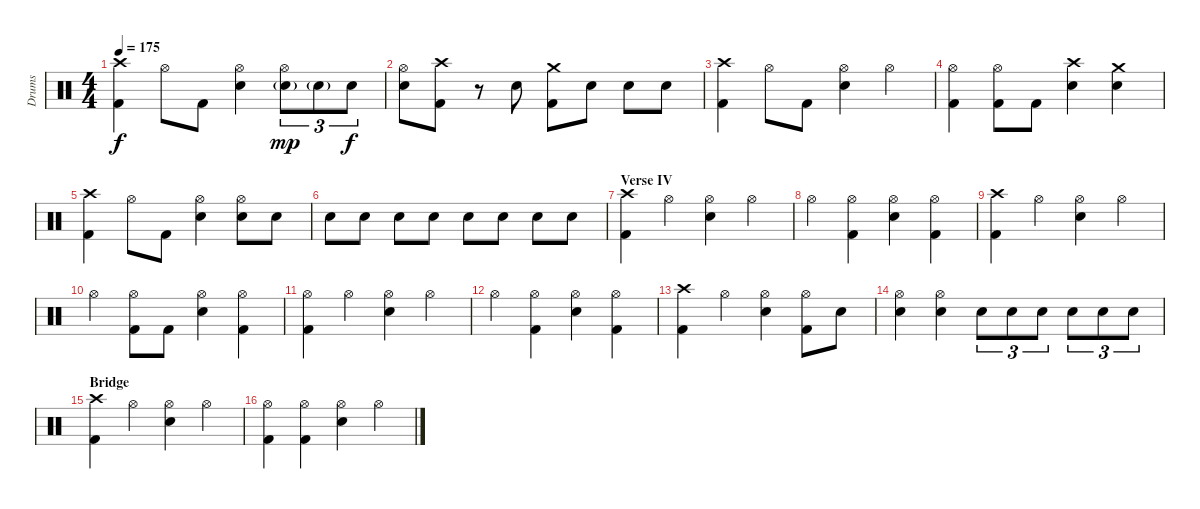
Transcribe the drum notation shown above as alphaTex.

\track ("Drums" "Drums") {instrument percussion}
\staff {score}
\articulation defaults
\ts (4 4)
\tempo 175
\clef neutral
\ks c
("Crash high (hit)" "Kick (hit) 2").4{dy f} "Hi-Hat (open)".8 "Kick (hit) 2".8 ("Hi-Hat (open)" "Snare (hit) 2").4 ("Hi-Hat (open)" "Snare (hit) 2"{g}).8{tu (3 2) dy mp} "Snare (hit) 2"{g}.8{tu (3 2)} "Snare (hit) 2".8{tu (3 2) dy f} |
("Hi-Hat (open)" "Snare (hit) 2").8 ("Crash high (hit)" "Kick (hit) 2").8 r.8 "Snare (hit) 2".8 ("Crash medium (hit)" "Kick (hit) 2").8 "Snare (hit) 2".8 "Snare (hit) 2".8 "Snare (hit) 2".8 |
("Crash high (hit)" "Kick (hit) 2").4 "Hi-Hat (open)".8 "Kick (hit) 2".8 ("Hi-Hat (open)" "Snare (hit) 2").4 "Hi-Hat (open)".4 |
("Hi-Hat (open)" "Kick (hit) 2").4 ("Hi-Hat (open)" "Kick (hit) 2").8 "Kick (hit) 2".8 ("Crash high (hit)" "Snare (hit) 2").4 ("Crash medium (hit)" "Snare (hit) 2").4 |
("Crash high (hit)" "Kick (hit) 2").4 "Hi-Hat (open)".8 "Kick (hit) 2".8 ("Hi-Hat (open)" "Snare (hit) 2").4 ("Hi-Hat (open)" "Snare (hit) 2").8 "Snare (hit) 2".8 |
"Snare (hit) 2".8 "Snare (hit) 2".8 "Snare (hit) 2".8 "Snare (hit) 2".8 "Snare (hit) 2".8 "Snare (hit) 2".8 "Snare (hit) 2".8 "Snare (hit) 2".8 |
\section ("" "Verse IV")
("Crash high (hit)" "Kick (hit) 2").4 "Hi-Hat (open)".4 ("Hi-Hat (open)" "Snare (hit) 2").4 "Hi-Hat (open)".4 |
"Hi-Hat (open)".4 ("Hi-Hat (open)" "Kick (hit) 2").4 ("Hi-Hat (open)" "Snare (hit) 2").4 ("Hi-Hat (open)" "Kick (hit) 2").4 |
("Crash high (hit)" "Kick (hit) 2").4 "Hi-Hat (open)".4 ("Hi-Hat (open)" "Snare (hit) 2").4 "Hi-Hat (open)".4 |
"Hi-Hat (open)".4 ("Hi-Hat (open)" "Kick (hit) 2").8 "Kick (hit) 2".8 ("Hi-Hat (open)" "Snare (hit) 2").4 ("Hi-Hat (open)" "Kick (hit) 2").4 |
("Hi-Hat (open)" "Kick (hit) 2").4 "Hi-Hat (open)".4 ("Hi-Hat (open)" "Snare (hit) 2").4 "Hi-Hat (open)".4 |
"Hi-Hat (open)".4 ("Hi-Hat (open)" "Kick (hit) 2").4 ("Hi-Hat (open)" "Snare (hit) 2").4 ("Hi-Hat (open)" "Kick (hit) 2").4 |
("Crash high (hit)" "Kick (hit) 2").4 "Hi-Hat (open)".4 ("Hi-Hat (open)" "Snare (hit) 2").4 ("Hi-Hat (open)" "Kick (hit) 2").8 "Snare (hit) 2".8 |
("Hi-Hat (open)" "Snare (hit) 2").4 ("Hi-Hat (open)" "Snare (hit) 2").4 "Snare (hit) 2".8{tu (3 2)} "Snare (hit) 2".8{tu (3 2)} "Snare (hit) 2".8{tu (3 2)} "Snare (hit) 2".8{tu (3 2)} "Snare (hit) 2".8{tu (3 2)} "Snare (hit) 2".8{tu (3 2)} |
\section ("" "Bridge")
("Crash high (hit)" "Kick (hit) 2").4 "Hi-Hat (open)".4 ("Hi-Hat (open)" "Snare (hit) 2").4 "Hi-Hat (open)".4 |
("Hi-Hat (open)" "Kick (hit) 2").4 ("Hi-Hat (open)" "Kick (hit) 2").4 ("Hi-Hat (open)" "Snare (hit) 2").4 "Hi-Hat (open)".4
